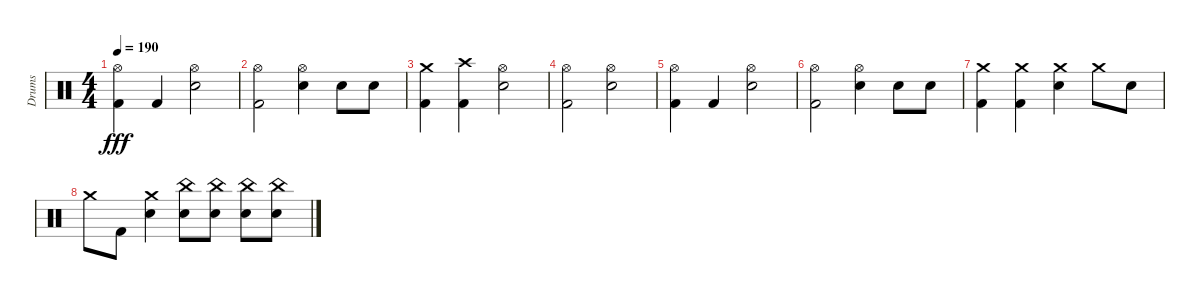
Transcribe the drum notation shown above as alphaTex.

\track ("Drums" "Drums") {instrument percussion}
\staff {score}
\articulation defaults
\ts (4 4)
\tempo 190
\clef neutral
\ks c
("Kick (hit) 2" "Hi-Hat (open)").4{dy fff} "Kick (hit) 2".4 ("Electric Snare (hit)" "Hi-Hat (open)").2 |
("Kick (hit) 2" "Hi-Hat (open)").2 ("Electric Snare (hit)" "Hi-Hat (open)").4 "Electric Snare (hit)".8 "Electric Snare (hit)".8 |
("Kick (hit) 2" "Crash medium (hit)").4 ("Crash high (hit)" "Kick (hit) 2").4 ("Hi-Hat (open)" "Electric Snare (hit)").2 |
("Kick (hit) 2" "Hi-Hat (open)").2 ("Electric Snare (hit)" "Hi-Hat (open)").2 |
("Kick (hit) 2" "Hi-Hat (open)").4 "Kick (hit) 2".4 ("Electric Snare (hit)" "Hi-Hat (open)").2 |
("Kick (hit) 2" "Hi-Hat (open)").2 ("Electric Snare (hit)" "Hi-Hat (open)").4 "Electric Snare (hit)".8 "Electric Snare (hit)".8 |
("Kick (hit) 2" "Crash medium (hit)").4 ("Kick (hit) 2" "Crash medium (hit)").4 ("Electric Snare (hit)" "Crash medium (hit)").4 "Crash medium (hit)".8 "Electric Snare (hit)".8 |
"Crash medium (hit)".8 "Kick (hit) 2".8 ("Crash medium (hit)" "Electric Snare (hit)").4 ("Electric Snare (hit)" "China (hit)").8 ("Electric Snare (hit)" "China (hit)").8 ("Electric Snare (hit)" "China (hit)").8 ("Electric Snare (hit)" "China (hit)").8
